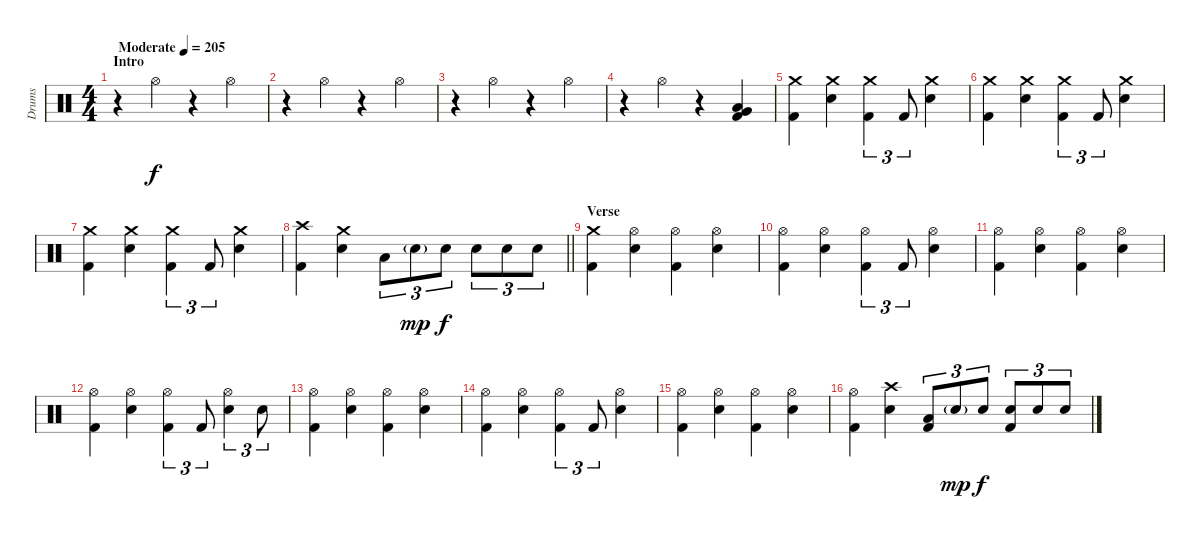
\track ("Drums" "Drums") {instrument percussion}
\staff {score}
\articulation defaults
\ts (4 4)
\section ("" "Intro")
\tempo (205 "Moderate")
\clef neutral
\ks c
r.4{dy f} "Hi-Hat (open)".4 r.4 "Hi-Hat (open)".4 |
r.4 "Hi-Hat (open)".4 r.4 "Hi-Hat (open)".4 |
r.4 "Hi-Hat (open)".4 r.4 "Hi-Hat (open)".4 |
r.4 "Hi-Hat (open)".4 r.4 ("Low Floor Tom (hit)" "Very Low Tom (hit)" "Kick (hit) 2").4 |
("Crash medium (hit)" "Kick (hit) 2").4 ("Crash medium (hit)" "Electric Snare (hit)").4 ("Crash medium (hit)" "Kick (hit) 2").4{tu (3 2)} "Kick (hit) 2".8{tu (3 2)} ("Crash medium (hit)" "Electric Snare (hit)").4 |
("Crash medium (hit)" "Kick (hit) 2").4 ("Crash medium (hit)" "Electric Snare (hit)").4 ("Crash medium (hit)" "Kick (hit) 2").4{tu (3 2)} "Kick (hit) 2".8{tu (3 2)} ("Crash medium (hit)" "Electric Snare (hit)").4 |
("Crash medium (hit)" "Kick (hit) 2").4 ("Crash medium (hit)" "Electric Snare (hit)").4 ("Crash medium (hit)" "Kick (hit) 2").4{tu (3 2)} "Kick (hit) 2".8{tu (3 2)} ("Crash medium (hit)" "Electric Snare (hit)").4 |
\barLineRight lightlight
("Crash high (hit)" "Kick (hit) 2").4 ("Crash medium (hit)" "Electric Snare (hit)").4 "Low Tom (hit)".8{tu (3 2)} "Electric Snare (hit)"{g}.8{tu (3 2) dy mp} "Electric Snare (hit)".8{tu (3 2) dy f} "Electric Snare (hit)".8{tu (3 2)} "Electric Snare (hit)".8{tu (3 2)} "Electric Snare (hit)".8{tu (3 2)} |
\section ("" "Verse")
("Crash medium (hit)" "Kick (hit) 2").4 ("Hi-Hat (open)" "Electric Snare (hit)").4 ("Hi-Hat (open)" "Kick (hit) 2").4 ("Hi-Hat (open)" "Electric Snare (hit)").4 |
("Hi-Hat (open)" "Kick (hit) 2").4 ("Hi-Hat (open)" "Electric Snare (hit)").4 ("Hi-Hat (open)" "Kick (hit) 2").4{tu (3 2)} "Kick (hit) 2".8{tu (3 2)} ("Hi-Hat (open)" "Electric Snare (hit)").4 |
("Hi-Hat (open)" "Kick (hit) 2").4 ("Hi-Hat (open)" "Electric Snare (hit)").4 ("Hi-Hat (open)" "Kick (hit) 2").4 ("Hi-Hat (open)" "Electric Snare (hit)").4 |
("Hi-Hat (open)" "Kick (hit) 2").4 ("Hi-Hat (open)" "Electric Snare (hit)").4 ("Hi-Hat (open)" "Kick (hit) 2").4{tu (3 2)} "Kick (hit) 2".8{tu (3 2)} ("Hi-Hat (open)" "Electric Snare (hit)").4{tu (3 2)} "Electric Snare (hit)".8{tu (3 2)} |
("Hi-Hat (open)" "Kick (hit) 2").4 ("Hi-Hat (open)" "Electric Snare (hit)").4 ("Hi-Hat (open)" "Kick (hit) 2").4 ("Hi-Hat (open)" "Electric Snare (hit)").4 |
("Hi-Hat (open)" "Kick (hit) 2").4 ("Hi-Hat (open)" "Electric Snare (hit)").4 ("Hi-Hat (open)" "Kick (hit) 2").4{tu (3 2)} "Kick (hit) 2".8{tu (3 2)} ("Hi-Hat (open)" "Electric Snare (hit)").4 |
("Hi-Hat (open)" "Kick (hit) 2").4 ("Hi-Hat (open)" "Electric Snare (hit)").4 ("Hi-Hat (open)" "Kick (hit) 2").4 ("Hi-Hat (open)" "Electric Snare (hit)").4 |
("Hi-Hat (open)" "Kick (hit) 2").4 ("Crash high (hit)" "Electric Snare (hit)").4 ("Low Tom (hit)" "Kick (hit) 2").8{tu (3 2)} "Electric Snare (hit)"{g}.8{tu (3 2) dy mp} "Electric Snare (hit)".8{tu (3 2) dy f} ("Electric Snare (hit)" "Kick (hit) 2").8{tu (3 2)} "Electric Snare (hit)".8{tu (3 2)} "Electric Snare (hit)".8{tu (3 2)}
